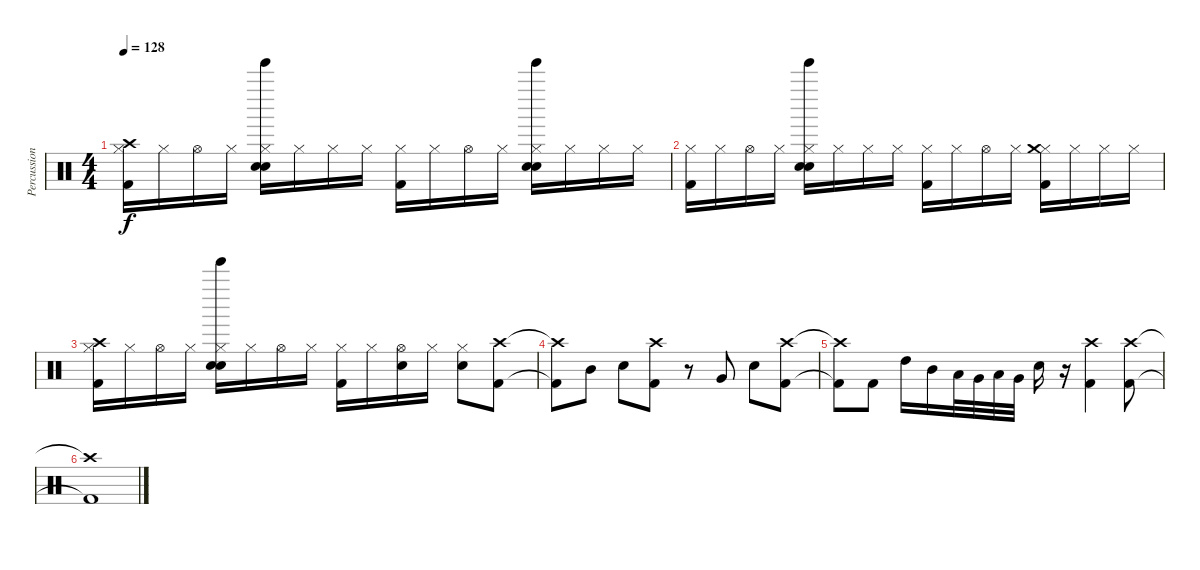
\track ("Percussion" "Percussion") {instrument percussion}
\staff {score}
\articulation defaults
\ts (4 4)
\tempo 128
\clef neutral
\ks c
("Hi-Hat (closed)" "Crash high (hit)" "Kick (hit) 2").16{dy f} "Hi-Hat (closed)".16 "Hi-Hat (open)".16 "Hi-Hat (closed)".16 ("Hi-Hat (closed)" "Hand Clap (hit)" "Tinkle Bell (hit)" "Electric Snare (hit)").16 "Hi-Hat (closed)".16 "Hi-Hat (closed)".16 "Hi-Hat (closed)".16 ("Hi-Hat (closed)" "Kick (hit) 2").16 "Hi-Hat (closed)".16 "Hi-Hat (open)".16 "Hi-Hat (closed)".16 ("Hi-Hat (closed)" "Hand Clap (hit)" "Tinkle Bell (hit)" "Electric Snare (hit)").16 "Hi-Hat (closed)".16 "Hi-Hat (closed)".16 "Hi-Hat (closed)".16 |
("Hi-Hat (closed)" "Kick (hit) 2").16 "Hi-Hat (closed)".16 "Hi-Hat (open)".16 "Hi-Hat (closed)".16 ("Hi-Hat (closed)" "Hand Clap (hit)" "Tinkle Bell (hit)" "Electric Snare (hit)").16 "Hi-Hat (closed)".16 "Hi-Hat (closed)".16 "Hi-Hat (closed)".16 ("Hi-Hat (closed)" "Kick (hit) 2").16 "Hi-Hat (closed)".16 "Hi-Hat (open)".16 "Hi-Hat (closed)".16 ("Hi-Hat (closed)" "Crash medium (hit)" "Kick (hit) 2").16 "Hi-Hat (closed)".16 "Hi-Hat (closed)".16 "Hi-Hat (closed)".16 |
("Hi-Hat (closed)" "Crash high (hit)" "Kick (hit) 2").16 "Hi-Hat (closed)".16 "Hi-Hat (open)".16 "Hi-Hat (closed)".16 ("Hi-Hat (closed)" "Hand Clap (hit)" "Tinkle Bell (hit)" "Electric Snare (hit)").16 "Hi-Hat (closed)".16 "Hi-Hat (open)".16 "Hi-Hat (closed)".16 ("Hi-Hat (closed)" "Kick (hit) 2").16 "Hi-Hat (closed)".16 ("Hi-Hat (open)" "Electric Snare (hit)").16 "Hi-Hat (closed)".16 ("Hi-Hat (closed)" "Electric Snare (hit)").8 ("Crash high (hit)" "Kick (hit) 2").8 |
("Crash high (hit)"{t} "Kick (hit) 2"{t}).8 "Mid Tom (hit)".8 "Electric Snare (hit)".8 ("Crash high (hit)" "Kick (hit) 2").8 r.8 "Very Low Tom (hit)".8 "Electric Snare (hit)".8 ("Crash high (hit)" "Kick (hit) 2").8 |
("Crash high (hit)"{t} "Kick (hit) 2"{t}).8 "Kick (hit) 2".8 "High Tom (hit)".16 "Mid Tom (hit)".16 "Low Tom (hit)".32 "Very Low Tom (hit)".32 "Low Tom (hit)".32 "Very Low Tom (hit)".32 "Electric Snare (hit)".16 r.16 ("Crash high (hit)" "Kick (hit) 2").4 ("Crash high (hit)" "Kick (hit) 2").8 |
("Crash high (hit)"{t} "Kick (hit) 2"{t}).1
